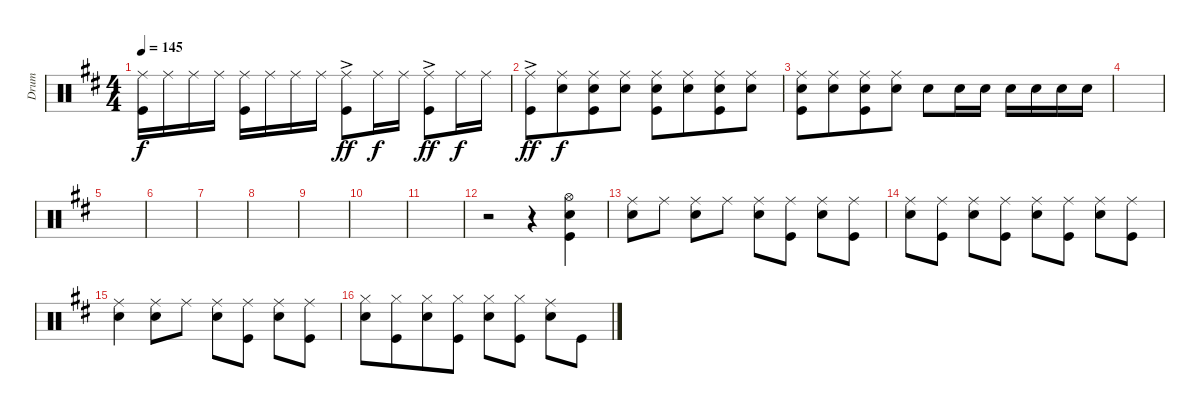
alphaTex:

\track ("     Drum" "     Drum") {instrument percussion}
\staff {score}
\articulation defaults
\ts (4 4)
\tempo 145
\clef neutral
\ks d
("Ride (middle)" "Kick (hit)").16{dy f} "Ride (middle)".16 "Ride (middle)".16 "Ride (middle)".16 ("Ride (middle)" "Kick (hit)").16 "Ride (middle)".16 "Ride (middle)".16 "Ride (middle)".16 ("Ride (middle)"{ac} "Kick (hit)").8{dy ff} "Ride (middle)".16{dy f} "Ride (middle)".16 ("Ride (middle)"{ac} "Kick (hit)").8{dy ff} "Ride (middle)".16{dy f} "Ride (middle)".16 |
("Ride (middle)"{ac} "Kick (hit)").8{dy ff} ("Ride (middle)" "Snare (hit) 2").8{dy f beam merge} ("Ride (middle)" "Snare (hit) 2" "Kick (hit)").8 ("Ride (middle)" "Snare (hit) 2").8 ("Ride (middle)" "Snare (hit) 2" "Kick (hit)").8 ("Ride (middle)" "Snare (hit) 2").8{beam merge} ("Ride (middle)" "Snare (hit) 2" "Kick (hit)").8 ("Ride (middle)" "Snare (hit) 2").8 |
("Ride (middle)" "Snare (hit) 2" "Kick (hit)").8 ("Ride (middle)" "Snare (hit) 2").8{beam merge} ("Ride (middle)" "Snare (hit) 2" "Kick (hit)").8 ("Ride (middle)" "Snare (hit) 2").8 "Snare (hit) 2".8 "Snare (hit) 2".16 "Snare (hit) 2".16 "Snare (hit) 2".16 "Snare (hit) 2".16 "Snare (hit) 2".16 "Snare (hit) 2".16 |
|
|
|
|
|
|
|
|
r.2 r.4 ("Hi-Hat (open)" "Snare (hit) 2" "Kick (hit)").4 |
("Ride (middle)" "Snare (hit) 2").8 "Ride (middle)".8 ("Ride (middle)" "Snare (hit) 2").8 "Ride (middle)".8 ("Ride (middle)" "Snare (hit) 2").8 ("Ride (middle)" "Kick (hit)").8 ("Ride (middle)" "Snare (hit) 2").8 ("Ride (middle)" "Kick (hit)").8 |
("Ride (middle)" "Snare (hit) 2").8 ("Ride (middle)" "Kick (hit)").8 ("Ride (middle)" "Snare (hit) 2").8 ("Ride (middle)" "Kick (hit)").8 ("Ride (middle)" "Snare (hit) 2").8 ("Ride (middle)" "Kick (hit)").8 ("Ride (middle)" "Snare (hit) 2").8 ("Ride (middle)" "Kick (hit)").8 |
("Ride (middle)" "Snare (hit) 2").4 ("Ride (middle)" "Snare (hit) 2").8 "Ride (middle)".8 ("Ride (middle)" "Snare (hit) 2").8 ("Ride (middle)" "Kick (hit)").8 ("Ride (middle)" "Snare (hit) 2").8 ("Ride (middle)" "Kick (hit)").8 |
("Hi-Hat (closed)" "Snare (hit) 2").8 ("Hi-Hat (closed)" "Kick (hit)").8{beam merge} ("Hi-Hat (closed)" "Snare (hit) 2").8 ("Hi-Hat (closed)" "Kick (hit)").8 ("Hi-Hat (closed)" "Snare (hit) 2").8{beam merge} ("Hi-Hat (closed)" "Kick (hit)").8 ("Ride (middle)" "Snare (hit) 2").8 "Kick (hit)".8
